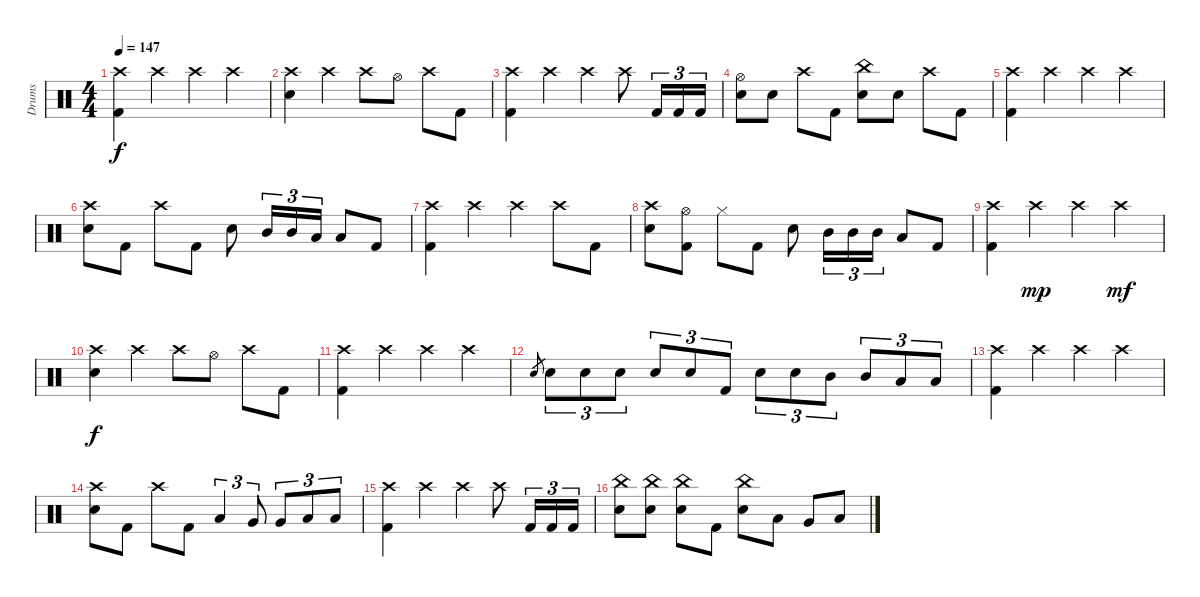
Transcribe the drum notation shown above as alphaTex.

\track ("Drums" "Drums") {instrument percussion}
\staff
\articulation defaults
\ts (4 4)
\tempo 147
\clef neutral
\ks c
("Crash high (hit)" "Kick (hit) 2").4{dy f} "Crash high (hit)".4 "Crash high (hit)".4 "Crash high (hit)".4 |
("Crash high (hit)" "Electric Snare (hit)").4 "Crash high (hit)".4 "Crash high (hit)".8 "Hi-Hat (open)".8 "Crash high (hit)".8 "Kick (hit) 2".8 |
("Crash high (hit)" "Kick (hit) 2").4 "Crash high (hit)".4 "Crash high (hit)".4 "Crash high (hit)".8 "Kick (hit) 2".16{tu (3 2)} "Kick (hit) 2".16{tu (3 2)} "Kick (hit) 2".16{tu (3 2)} |
("Hi-Hat (open)" "Electric Snare (hit)").8 "Electric Snare (hit)".8 "Crash high (hit)".8 "Kick (hit) 2".8 ("China (hit)" "Electric Snare (hit)").8 "Electric Snare (hit)".8 "Crash high (hit)".8 "Kick (hit) 2".8 |
("Crash high (hit)" "Kick (hit) 2").4 "Crash high (hit)".4 "Crash high (hit)".4 "Crash high (hit)".4 |
("Crash high (hit)" "Electric Snare (hit)").8 "Kick (hit) 2".8 "Crash high (hit)".8 "Kick (hit) 2".8 "Electric Snare (hit)".8 "Mid Tom (hit)".16{tu (3 2)} "Mid Tom (hit)".16{tu (3 2)} "Low Tom (hit)".16{tu (3 2)} "Low Tom (hit)".8 "Kick (hit) 2".8 |
("Crash high (hit)" "Kick (hit) 2").4 "Crash high (hit)".4 "Crash high (hit)".4 "Crash high (hit)".8 "Kick (hit) 2".8 |
("Crash high (hit)" "Electric Snare (hit)").8 ("Hi-Hat (open)" "Kick (hit) 2").8 "Hi-Hat (closed)".8 "Kick (hit) 2".8 "Electric Snare (hit)".8 "Mid Tom (hit)".16{tu (3 2)} "Mid Tom (hit)".16{tu (3 2)} "Mid Tom (hit)".16{tu (3 2)} "Low Tom (hit)".8 "Kick (hit) 2".8 |
("Crash high (hit)" "Kick (hit) 2").4 "Crash high (hit)".4{dy mp} "Crash high (hit)".4 "Crash high (hit)".4{dy mf} |
("Crash high (hit)" "Electric Snare (hit)").4{dy f} "Crash high (hit)".4 "Crash high (hit)".8 "Hi-Hat (open)".8 "Crash high (hit)".8 "Kick (hit) 2".8 |
("Crash high (hit)" "Kick (hit) 2").4 "Crash high (hit)".4 "Crash high (hit)".4 "Crash high (hit)".4 |
"Electric Snare (hit)".8{gr} "Electric Snare (hit)".8{tu (3 2)} "Electric Snare (hit)".8{tu (3 2)} "Electric Snare (hit)".8{tu (3 2)} "Electric Snare (hit)".8{tu (3 2)} "Electric Snare (hit)".8{tu (3 2)} "Kick (hit) 2".8{tu (3 2)} "Electric Snare (hit)".8{tu (3 2)} "Electric Snare (hit)".8{tu (3 2)} "Mid Tom (hit)".8{tu (3 2)} "Mid Tom (hit)".8{tu (3 2)} "Low Tom (hit)".8{tu (3 2)} "Low Tom (hit)".8{tu (3 2)} |
("Crash high (hit)" "Kick (hit) 2").4 "Crash high (hit)".4 "Crash high (hit)".4 "Crash high (hit)".4 |
("Crash high (hit)" "Electric Snare (hit)").8 "Kick (hit) 2".8 "Crash high (hit)".8 "Kick (hit) 2".8 "Low Tom (hit)".4{tu (3 2)} "Very Low Tom (hit)".8{tu (3 2)} "Very Low Tom (hit)".8{tu (3 2)} "Low Floor Tom (hit)".8{tu (3 2)} "Low Floor Tom (hit)".8{tu (3 2)} |
("Crash high (hit)" "Kick (hit) 2").4 "Crash high (hit)".4 "Crash high (hit)".4 "Crash high (hit)".8 "Kick (hit) 2".16{tu (3 2)} "Kick (hit) 2".16{tu (3 2)} "Kick (hit) 2".16{tu (3 2)} |
("China (hit)" "Electric Snare (hit)").8 ("China (hit)" "Electric Snare (hit)").8 ("China (hit)" "Electric Snare (hit)").8 "Kick (hit) 2".8 ("China (hit)" "Electric Snare (hit)").8 "Low Tom (hit)".8 "Very Low Tom (hit)".8 "Low Floor Tom (hit)".8
